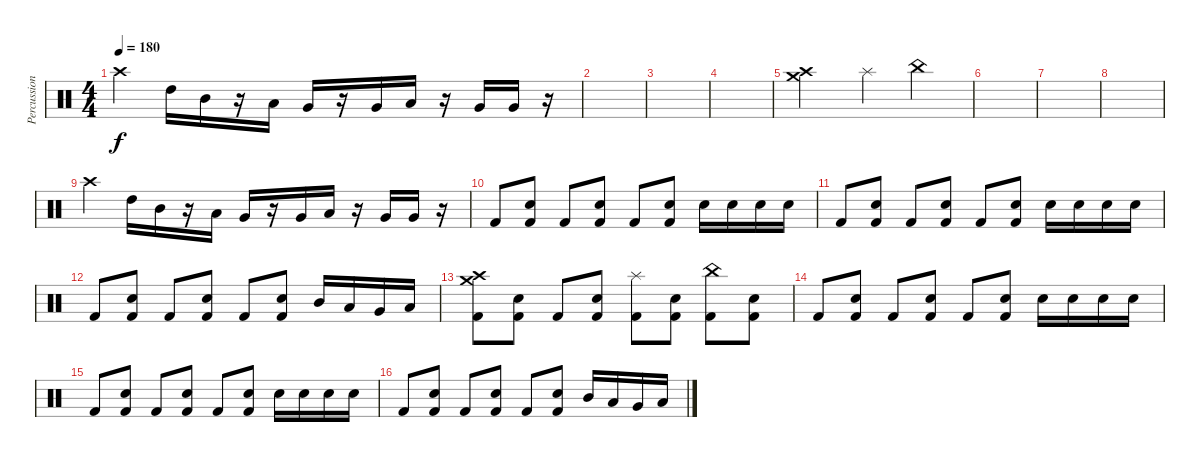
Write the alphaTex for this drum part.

\track ("Percussion" "Percussion") {mute instrument percussion}
\staff {score}
\articulation defaults
\ts (4 4)
\tempo 180
\clef neutral
\ks c "Crash high (hit)".4{dy f} "High Tom (hit)".16 "Mid Tom (hit)".16
r.16 "Low Tom (hit)".16 "Very Low Tom (hit)".16 r.16 "Very Low Tom (hit)".16 "Low Floor Tom (hit)".16 r.16 "Very Low Tom (hit)".16 "Very Low Tom (hit)".16 r.16 |
|
|
|
("Crash high (hit)" "Crash medium (hit)").2 "Splash (hit)".4 "China (hit)".4 |
|
|
|
"Crash high (hit)".4 "High Tom (hit)".16 "Mid Tom (hit)".16 r.16 "Low Tom (hit)".16 "Very Low Tom (hit)".16 r.16 "Very Low Tom (hit)".16 "Low Floor Tom (hit)".16 r.16 "Very Low Tom (hit)".16 "Very Low Tom (hit)".16 r.16 |
"Kick (hit) 2".8 ("Electric Snare (hit)" "Kick (hit) 2").8 "Kick (hit) 2".8 ("Electric Snare (hit)" "Kick (hit) 2").8 "Kick (hit) 2".8 ("Electric Snare (hit)" "Kick (hit) 2").8 "Electric Snare (hit)".16 "Electric Snare (hit)".16 "Electric Snare (hit)".16 "Electric Snare (hit)".16 |
"Kick (hit) 2".8 ("Electric Snare (hit)" "Kick (hit) 2").8 "Kick (hit) 2".8 ("Electric Snare (hit)" "Kick (hit) 2").8 "Kick (hit) 2".8 ("Electric Snare (hit)" "Kick (hit) 2").8 "Electric Snare (hit)".16 "Electric Snare (hit)".16 "Electric Snare (hit)".16 "Electric Snare (hit)".16 |
"Kick (hit) 2".8 ("Electric Snare (hit)" "Kick (hit) 2").8 "Kick (hit) 2".8 ("Electric Snare (hit)" "Kick (hit) 2").8 "Kick (hit) 2".8 ("Electric Snare (hit)" "Kick (hit) 2").8 "Mid Tom (hit)".16 "Low Tom (hit)".16 "Very Low Tom (hit)".16 "Low Floor Tom (hit)".16 |
("Crash high (hit)" "Crash medium (hit)" "Kick (hit) 2").8 ("Electric Snare (hit)" "Kick (hit) 2").8 "Kick (hit) 2".8 ("Electric Snare (hit)" "Kick (hit) 2").8 ("Splash (hit)" "Kick (hit) 2").8 ("Electric Snare (hit)" "Kick (hit) 2").8 ("China (hit)" "Kick (hit) 2").8 ("Electric Snare (hit)" "Kick (hit) 2").8 |
"Kick (hit) 2".8 ("Electric Snare (hit)" "Kick (hit) 2").8 "Kick (hit) 2".8 ("Electric Snare (hit)" "Kick (hit) 2").8 "Kick (hit) 2".8 ("Electric Snare (hit)" "Kick (hit) 2").8 "Electric Snare (hit)".16 "Electric Snare (hit)".16 "Electric Snare (hit)".16 "Electric Snare (hit)".16 |
"Kick (hit) 2".8 ("Electric Snare (hit)" "Kick (hit) 2").8 "Kick (hit) 2".8 ("Electric Snare (hit)" "Kick (hit) 2").8 "Kick (hit) 2".8 ("Electric Snare (hit)" "Kick (hit) 2").8 "Electric Snare (hit)".16 "Electric Snare (hit)".16 "Electric Snare (hit)".16 "Electric Snare (hit)".16 |
"Kick (hit) 2".8 ("Electric Snare (hit)" "Kick (hit) 2").8 "Kick (hit) 2".8 ("Electric Snare (hit)" "Kick (hit) 2").8 "Kick (hit) 2".8 ("Electric Snare (hit)" "Kick (hit) 2").8 "Mid Tom (hit)".16 "Low Tom (hit)".16 "Very Low Tom (hit)".16 "Low Floor Tom (hit)".16
